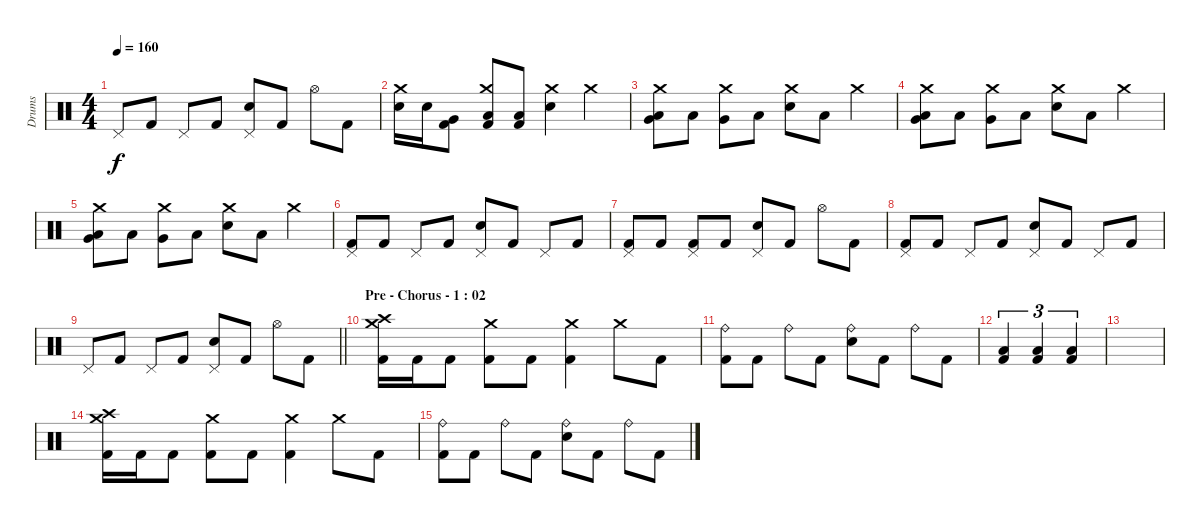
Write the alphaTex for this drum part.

\track ("Drums" "Drums") {instrument percussion}
\staff {score}
\articulation defaults
\ts (4 4)
\tempo 160
\clef neutral
\ks c "Pedal Hi-Hat (hit)".8{dy f} "Kick (hit) 2".8 "Pedal Hi-Hat (hit)".8 "Kick (hit) 2".8
("Pedal Hi-Hat (hit)" "Snare (hit) 2").8 "Kick (hit) 2".8 "Hi-Hat (open)".8 "Kick (hit) 2".8 |
("Crash medium (hit)" "Electric Snare (hit)").16 "Electric Snare (hit)".16 ("Very Low Tom (hit)" "Kick (hit) 2").8 ("Crash medium (hit)" "Low Floor Tom (hit)" "Kick (hit) 2").8 ("Low Floor Tom (hit)" "Kick (hit) 2").8 ("Crash medium (hit)" "Snare (hit) 2").4 "Crash medium (hit)".4 |
("Crash medium (hit)" "Low Tom (hit)" "Very Low Tom (hit)").8 "Low Tom (hit)".8 ("Crash medium (hit)" "Very Low Tom (hit)").8 "Low Floor Tom (hit)".8 ("Crash medium (hit)" "Snare (hit) 2").8 "Low Floor Tom (hit)".8 "Crash medium (hit)".4 |
("Crash medium (hit)" "Low Tom (hit)" "Very Low Tom (hit)").8 "Low Tom (hit)".8 ("Crash medium (hit)" "Very Low Tom (hit)").8 "Low Floor Tom (hit)".8 ("Crash medium (hit)" "Snare (hit) 2").8 "Low Floor Tom (hit)".8 "Crash medium (hit)".4 |
("Crash medium (hit)" "Low Tom (hit)" "Very Low Tom (hit)").8 "Low Tom (hit)".8 ("Crash medium (hit)" "Very Low Tom (hit)").8 "Low Floor Tom (hit)".8 ("Crash medium (hit)" "Snare (hit) 2").8 "Low Floor Tom (hit)".8 "Crash medium (hit)".4 |
("Pedal Hi-Hat (hit)" "Kick (hit) 2").8 "Kick (hit) 2".8 "Pedal Hi-Hat (hit)".8 "Kick (hit) 2".8 ("Pedal Hi-Hat (hit)" "Snare (hit) 2").8 "Kick (hit) 2".8 "Pedal Hi-Hat (hit)".8 "Kick (hit) 2".8 |
("Pedal Hi-Hat (hit)" "Kick (hit) 2").8 "Kick (hit) 2".8 ("Pedal Hi-Hat (hit)" "Kick (hit) 2").8 "Kick (hit) 2".8 ("Pedal Hi-Hat (hit)" "Snare (hit) 2").8 "Kick (hit) 2".8 "Hi-Hat (open)".8 "Kick (hit) 2".8 |
("Pedal Hi-Hat (hit)" "Kick (hit) 2").8 "Kick (hit) 2".8 "Pedal Hi-Hat (hit)".8 "Kick (hit) 2".8 ("Pedal Hi-Hat (hit)" "Snare (hit) 2").8 "Kick (hit) 2".8 "Pedal Hi-Hat (hit)".8 "Kick (hit) 2".8 |
\barLineRight lightlight "Pedal Hi-Hat (hit)".8 "Kick (hit) 2".8 "Pedal Hi-Hat (hit)".8 "Kick (hit) 2".8
("Pedal Hi-Hat (hit)" "Snare (hit) 2").8 "Kick (hit) 2".8 "Hi-Hat (open)".8 "Kick (hit) 2".8 |
\section ("" "Pre - Chorus - 1 : 02")
("Crash high (hit)" "Crash medium (hit)" "Kick (hit) 2").16 "Kick (hit) 2".16 "Kick (hit) 2".8 ("Crash medium (hit)" "Kick (hit) 2").8 "Kick (hit) 2".8 ("Crash medium (hit)" "Kick (hit) 2").4 "Crash medium (hit)".8 "Kick (hit) 2".8 |
("Ride (bell)" "Kick (hit) 2").8 "Kick (hit) 2".8 "Ride (bell)".8 "Kick (hit) 2".8 ("Ride (bell)" "Snare (hit) 2").8 "Kick (hit) 2".8 "Ride (bell)".8 "Kick (hit) 2".8 |
("Low Floor Tom (hit)" "Kick (hit) 2").4{tu (3 2)} ("Low Floor Tom (hit)" "Kick (hit) 2").4{tu (3 2)} ("Low Floor Tom (hit)" "Kick (hit) 2").4{tu (3 2)} |
|
("Crash high (hit)" "Crash medium (hit)" "Kick (hit) 2").16 "Kick (hit) 2".16 "Kick (hit) 2".8 ("Crash medium (hit)" "Kick (hit) 2").8 "Kick (hit) 2".8 ("Crash medium (hit)" "Kick (hit) 2").4 "Crash medium (hit)".8 "Kick (hit) 2".8 |
("Ride (bell)" "Kick (hit) 2").8 "Kick (hit) 2".8 "Ride (bell)".8 "Kick (hit) 2".8 ("Ride (bell)" "Snare (hit) 2").8 "Kick (hit) 2".8 "Ride (bell)".8 "Kick (hit) 2".8
